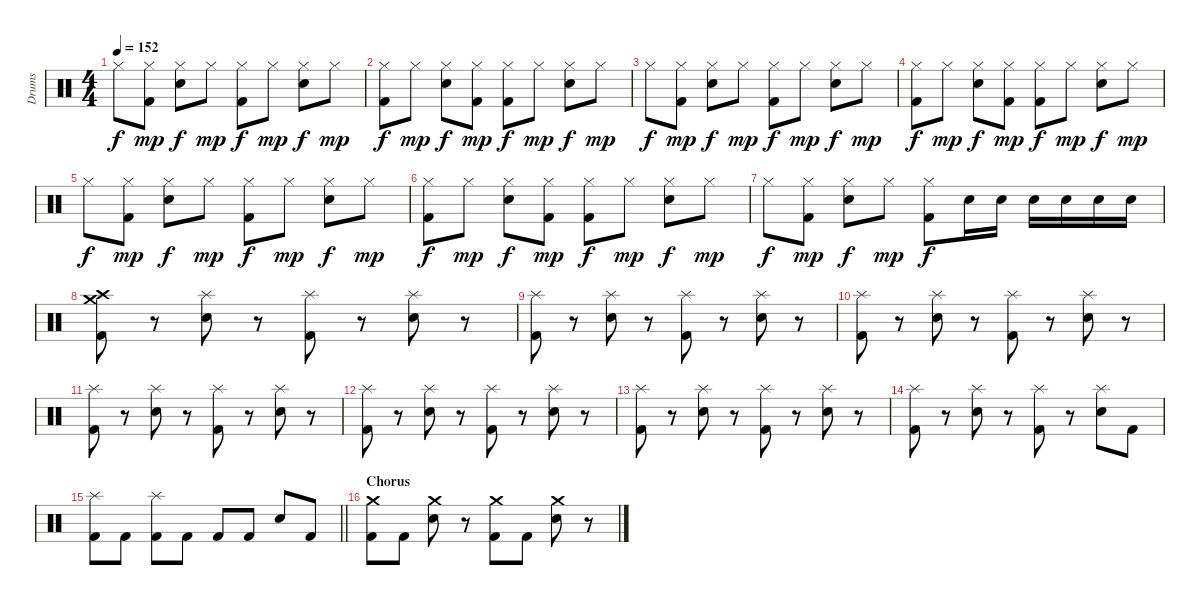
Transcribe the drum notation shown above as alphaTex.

\track ("Drums" "Drums") {instrument percussion}
\staff {score}
\articulation defaults
\ts (4 4)
\tempo 152
\clef neutral
\ks c "Hi-Hat (closed)".8{dy f}
("Hi-Hat (closed)" "Kick (hit) 2").8{dy mp} ("Hi-Hat (closed)" "Electric Snare (hit)").8{dy f} "Hi-Hat (closed)".8{dy mp} ("Hi-Hat (closed)" "Kick (hit) 2").8{dy f} "Hi-Hat (closed)".8{dy mp} ("Hi-Hat (closed)" "Electric Snare (hit)").8{dy f} "Hi-Hat (closed)".8{dy mp} |
("Hi-Hat (closed)" "Kick (hit) 2").8{dy f} "Hi-Hat (closed)".8{dy mp} ("Hi-Hat (closed)" "Electric Snare (hit)").8{dy f} ("Hi-Hat (closed)" "Kick (hit) 2").8{dy mp} ("Hi-Hat (closed)" "Kick (hit) 2").8{dy f} "Hi-Hat (closed)".8{dy mp} ("Hi-Hat (closed)" "Electric Snare (hit)").8{dy f} "Hi-Hat (closed)".8{dy mp} |
"Hi-Hat (closed)".8{dy f} ("Hi-Hat (closed)" "Kick (hit) 2").8{dy mp} ("Hi-Hat (closed)" "Electric Snare (hit)").8{dy f} "Hi-Hat (closed)".8{dy mp} ("Hi-Hat (closed)" "Kick (hit) 2").8{dy f} "Hi-Hat (closed)".8{dy mp} ("Hi-Hat (closed)" "Electric Snare (hit)").8{dy f} "Hi-Hat (closed)".8{dy mp} |
("Hi-Hat (closed)" "Kick (hit) 2").8{dy f} "Hi-Hat (closed)".8{dy mp} ("Hi-Hat (closed)" "Electric Snare (hit)").8{dy f} ("Hi-Hat (closed)" "Kick (hit) 2").8{dy mp} ("Hi-Hat (closed)" "Kick (hit) 2").8{dy f} "Hi-Hat (closed)".8{dy mp} ("Hi-Hat (closed)" "Electric Snare (hit)").8{dy f} "Hi-Hat (closed)".8{dy mp} |
"Hi-Hat (closed)".8{dy f} ("Hi-Hat (closed)" "Kick (hit) 2").8{dy mp} ("Hi-Hat (closed)" "Electric Snare (hit)").8{dy f} "Hi-Hat (closed)".8{dy mp} ("Hi-Hat (closed)" "Kick (hit) 2").8{dy f} "Hi-Hat (closed)".8{dy mp} ("Hi-Hat (closed)" "Electric Snare (hit)").8{dy f} "Hi-Hat (closed)".8{dy mp} |
("Hi-Hat (closed)" "Kick (hit) 2").8{dy f} "Hi-Hat (closed)".8{dy mp} ("Hi-Hat (closed)" "Electric Snare (hit)").8{dy f} ("Hi-Hat (closed)" "Kick (hit) 2").8{dy mp} ("Hi-Hat (closed)" "Kick (hit) 2").8{dy f} "Hi-Hat (closed)".8{dy mp} ("Hi-Hat (closed)" "Electric Snare (hit)").8{dy f} "Hi-Hat (closed)".8{dy mp} |
"Hi-Hat (closed)".8{dy f} ("Hi-Hat (closed)" "Kick (hit) 2").8{dy mp} ("Hi-Hat (closed)" "Electric Snare (hit)").8{dy f} "Hi-Hat (closed)".8{dy mp} ("Hi-Hat (closed)" "Kick (hit) 2").8{dy f} "Electric Snare (hit)".16 "Electric Snare (hit)".16 "Electric Snare (hit)".16 "Electric Snare (hit)".16 "Electric Snare (hit)".16 "Electric Snare (hit)".16 |
("Crash medium (hit)" "Crash high (hit)" "Kick (hit) 2").8 r.8 ("Splash (hit)" "Electric Snare (hit)").8 r.8 ("Splash (hit)" "Kick (hit) 2").8 r.8 ("Splash (hit)" "Electric Snare (hit)").8 r.8 |
("Splash (hit)" "Kick (hit) 2").8 r.8 ("Splash (hit)" "Electric Snare (hit)").8 r.8 ("Splash (hit)" "Kick (hit) 2").8 r.8 ("Splash (hit)" "Electric Snare (hit)").8 r.8 |
("Splash (hit)" "Kick (hit) 2").8 r.8 ("Splash (hit)" "Electric Snare (hit)").8 r.8 ("Splash (hit)" "Kick (hit) 2").8 r.8 ("Splash (hit)" "Electric Snare (hit)").8 r.8 |
("Splash (hit)" "Kick (hit) 2").8 r.8 ("Splash (hit)" "Electric Snare (hit)").8 r.8 ("Splash (hit)" "Kick (hit) 2").8 r.8 ("Splash (hit)" "Electric Snare (hit)").8 r.8 |
("Splash (hit)" "Kick (hit) 2").8 r.8 ("Splash (hit)" "Electric Snare (hit)").8 r.8 ("Splash (hit)" "Kick (hit) 2").8 r.8 ("Splash (hit)" "Electric Snare (hit)").8 r.8 |
("Splash (hit)" "Kick (hit) 2").8 r.8 ("Splash (hit)" "Electric Snare (hit)").8 r.8 ("Splash (hit)" "Kick (hit) 2").8 r.8 ("Splash (hit)" "Electric Snare (hit)").8 r.8 |
("Splash (hit)" "Kick (hit) 2").8 r.8 ("Splash (hit)" "Electric Snare (hit)").8 r.8 ("Splash (hit)" "Kick (hit) 2").8 r.8 ("Splash (hit)" "Electric Snare (hit)").8 "Kick (hit) 2".8 |
\barLineRight lightlight
("Splash (hit)" "Kick (hit) 2").8 "Kick (hit) 2".8 ("Splash (hit)" "Kick (hit) 2").8 "Kick (hit) 2".8 "Kick (hit) 2".8 "Kick (hit) 2".8 "Electric Snare (hit)".8 "Kick (hit) 2".8 |
\section ("" "Chorus")
("Crash medium (hit)" "Kick (hit) 2").8 "Kick (hit) 2".8 ("Crash medium (hit)" "Electric Snare (hit)").8 r.8 ("Crash medium (hit)" "Kick (hit) 2").8 "Kick (hit) 2".8 ("Crash medium (hit)" "Electric Snare (hit)").8 r.8
